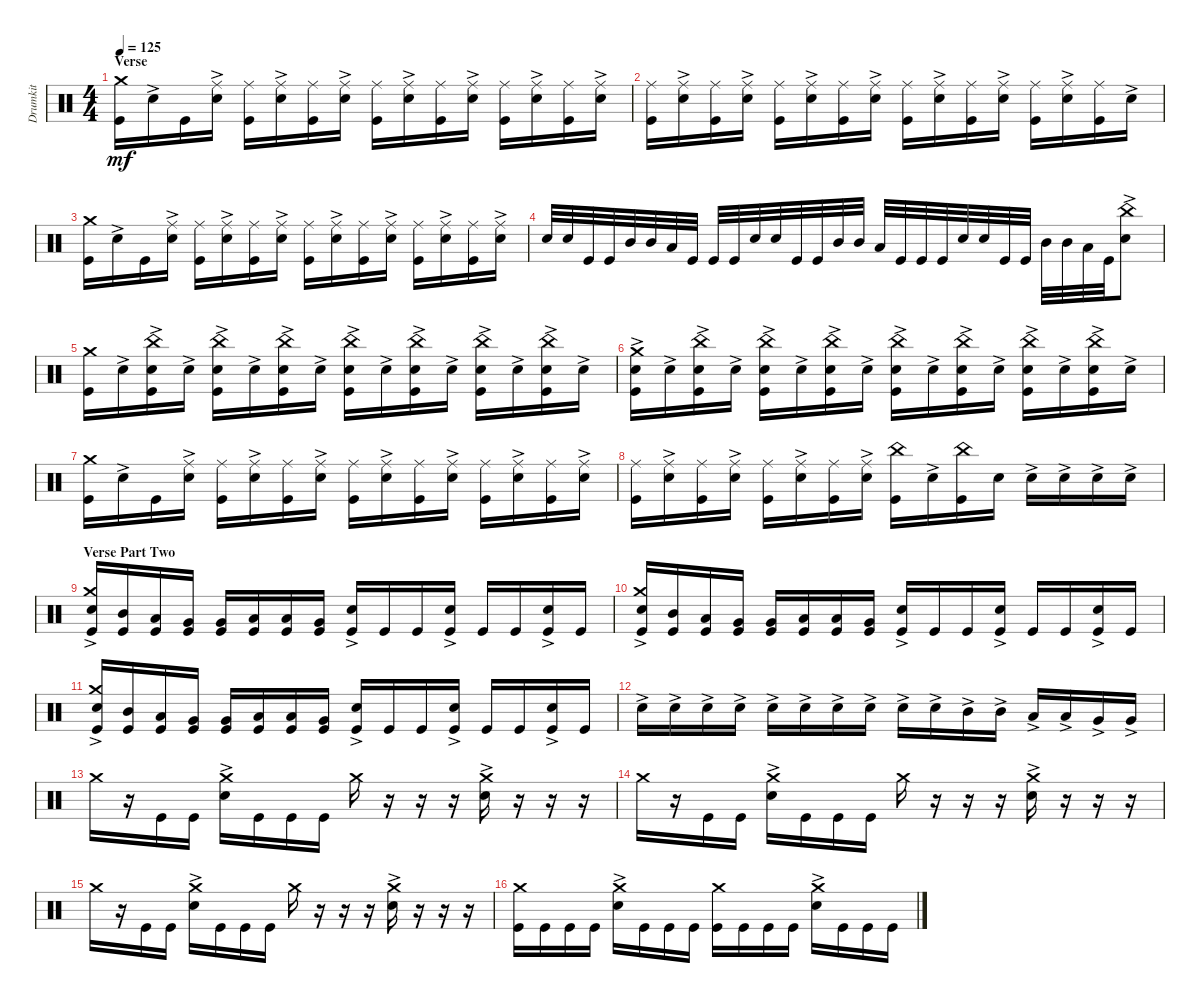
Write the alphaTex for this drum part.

\track ("Drumkit" "Drumkit") {instrument percussion}
\staff {score}
\articulation defaults
\ts (4 4)
\section ("" "Verse")
\tempo 125
\clef neutral
\ks c
("Kick (hit)" "Crash medium (hit)").16{dy mf} "Snare (hit) 2"{ac}.16 "Kick (hit)".16 ("Snare (hit) 2"{ac} "Ride (middle)").16 ("Kick (hit)" "Ride (middle)").16 ("Snare (hit) 2"{ac} "Ride (middle)").16 ("Kick (hit)" "Ride (middle)").16 ("Snare (hit) 2"{ac} "Ride (middle)").16 ("Kick (hit)" "Ride (middle)").16 ("Snare (hit) 2"{ac} "Ride (middle)").16 ("Kick (hit)" "Ride (middle)").16 ("Snare (hit) 2"{ac} "Ride (middle)").16 ("Kick (hit)" "Ride (middle)").16 ("Snare (hit) 2"{ac} "Ride (middle)").16 ("Kick (hit)" "Ride (middle)").16 ("Snare (hit) 2"{ac} "Ride (middle)").16 |
("Kick (hit)" "Ride (middle)").16 ("Snare (hit) 2"{ac} "Ride (middle)").16 ("Kick (hit)" "Ride (middle)").16 ("Snare (hit) 2"{ac} "Ride (middle)").16 ("Kick (hit)" "Ride (middle)").16 ("Snare (hit) 2"{ac} "Ride (middle)").16 ("Kick (hit)" "Ride (middle)").16 ("Snare (hit) 2"{ac} "Ride (middle)").16 ("Kick (hit)" "Ride (middle)").16 ("Snare (hit) 2"{ac} "Ride (middle)").16 ("Kick (hit)" "Ride (middle)").16 ("Snare (hit) 2"{ac} "Ride (middle)").16 ("Kick (hit)" "Ride (middle)").16 ("Snare (hit) 2"{ac} "Ride (middle)").16 ("Kick (hit)" "Ride (middle)").16 "Snare (hit) 2"{ac}.16 |
("Kick (hit)" "Crash medium (hit)").16 "Snare (hit) 2"{ac}.16 "Kick (hit)".16 ("Snare (hit) 2"{ac} "Ride (middle)").16 ("Kick (hit)" "Ride (middle)").16 ("Snare (hit) 2"{ac} "Ride (middle)").16 ("Kick (hit)" "Ride (middle)").16 ("Snare (hit) 2"{ac} "Ride (middle)").16 ("Kick (hit)" "Ride (middle)").16 ("Snare (hit) 2"{ac} "Ride (middle)").16 ("Kick (hit)" "Ride (middle)").16 ("Snare (hit) 2"{ac} "Ride (middle)").16 ("Kick (hit)" "Ride (middle)").16 ("Snare (hit) 2"{ac} "Ride (middle)").16 ("Kick (hit)" "Ride (middle)").16 ("Snare (hit) 2"{ac} "Ride (middle)").16 |
"Snare (hit) 2".32 "Snare (hit) 2".32 "Kick (hit)".32 "Kick (hit)".32 "Mid Tom (hit)".32 "Mid Tom (hit)".32 "Low Tom (hit)".32 "Kick (hit)".32 "Kick (hit)".32 "Kick (hit)".32 "Snare (hit) 2".32 "Snare (hit) 2".32 "Kick (hit)".32 "Kick (hit)".32 "Mid Tom (hit)".32 "Mid Tom (hit)".32 "Low Tom (hit)".32 "Kick (hit)".32 "Kick (hit)".32 "Kick (hit)".32 "Snare (hit) 2".32 "Snare (hit) 2".32 "Kick (hit)".32 "Kick (hit)".32 "Mid Tom (hit)".32 "Mid Tom (hit)".32 "Low Tom (hit)".32 "Kick (hit)".32 ("Snare (hit) 2"{ac} "China (hit)").8 |
("Kick (hit)" "Crash medium (hit)").16 "Snare (hit) 2"{ac}.16 ("Kick (hit)" "China (hit)" "Snare (hit) 2"{ac}).16 "Snare (hit) 2"{ac}.16 ("Kick (hit)" "China (hit)" "Snare (hit) 2"{ac}).16 "Snare (hit) 2"{ac}.16 ("Kick (hit)" "China (hit)" "Snare (hit) 2"{ac}).16 "Snare (hit) 2"{ac}.16 ("Kick (hit)" "China (hit)" "Snare (hit) 2"{ac}).16 "Snare (hit) 2"{ac}.16 ("Kick (hit)" "China (hit)" "Snare (hit) 2"{ac}).16 "Snare (hit) 2"{ac}.16 ("Kick (hit)" "China (hit)" "Snare (hit) 2"{ac}).16 "Snare (hit) 2"{ac}.16 ("Kick (hit)" "China (hit)" "Snare (hit) 2"{ac}).16 "Snare (hit) 2"{ac}.16 |
("Kick (hit)" "Crash medium (hit)" "Snare (hit) 2"{ac}).16 "Snare (hit) 2"{ac}.16 ("Kick (hit)" "China (hit)" "Snare (hit) 2"{ac}).16 "Snare (hit) 2"{ac}.16 ("Kick (hit)" "China (hit)" "Snare (hit) 2"{ac}).16 "Snare (hit) 2"{ac}.16 ("Kick (hit)" "China (hit)" "Snare (hit) 2"{ac}).16 "Snare (hit) 2"{ac}.16 ("Kick (hit)" "China (hit)" "Snare (hit) 2"{ac}).16 "Snare (hit) 2"{ac}.16 ("Kick (hit)" "China (hit)" "Snare (hit) 2"{ac}).16 "Snare (hit) 2"{ac}.16 ("Kick (hit)" "China (hit)" "Snare (hit) 2"{ac}).16 "Snare (hit) 2"{ac}.16 ("Kick (hit)" "China (hit)" "Snare (hit) 2"{ac}).16 "Snare (hit) 2"{ac}.16 |
("Kick (hit)" "Crash medium (hit)").16 "Snare (hit) 2"{ac}.16 "Kick (hit)".16 ("Snare (hit) 2"{ac} "Ride (middle)").16 ("Kick (hit)" "Ride (middle)").16 ("Snare (hit) 2"{ac} "Ride (middle)").16 ("Kick (hit)" "Ride (middle)").16 ("Snare (hit) 2"{ac} "Ride (middle)").16 ("Kick (hit)" "Ride (middle)").16 ("Snare (hit) 2"{ac} "Ride (middle)").16 ("Kick (hit)" "Ride (middle)").16 ("Snare (hit) 2"{ac} "Ride (middle)").16 ("Kick (hit)" "Ride (middle)").16 ("Snare (hit) 2"{ac} "Ride (middle)").16 ("Kick (hit)" "Ride (middle)").16 ("Snare (hit) 2"{ac} "Ride (middle)").16 |
("Kick (hit)" "Ride (middle)").16 ("Snare (hit) 2"{ac} "Ride (middle)").16 ("Kick (hit)" "Ride (middle)").16 ("Snare (hit) 2"{ac} "Ride (middle)").16 ("Kick (hit)" "Ride (middle)").16 ("Snare (hit) 2"{ac} "Ride (middle)").16 ("Kick (hit)" "Ride (middle)").16 ("Snare (hit) 2"{ac} "Ride (middle)").16 ("Kick (hit)" "China (hit)").16 "Snare (hit) 2"{ac}.16 ("Kick (hit)" "China (hit)").16 "Snare (hit) 2".16 "Snare (hit) 2"{ac}.16 "Snare (hit) 2"{ac}.16 "Snare (hit) 2"{ac}.16 "Snare (hit) 2"{ac}.16 |
\section ("" "Verse Part Two")
("Kick (hit)" "Snare (hit) 2"{ac} "Crash medium (hit)").16 ("Kick (hit)" "Mid Tom (hit)").16 ("Kick (hit)" "Low Tom (hit)").16 ("Kick (hit)" "Very Low Tom (hit)").16 ("Kick (hit)" "Very Low Tom (hit)").16 ("Kick (hit)" "Low Floor Tom (hit)").16 ("Kick (hit)" "Low Tom (hit)").16 ("Kick (hit)" "Very Low Tom (hit)").16 ("Kick (hit)" "Snare (hit) 2"{ac}).16 "Kick (hit)".16 "Kick (hit)".16 ("Kick (hit)" "Snare (hit) 2"{ac}).16 "Kick (hit)".16 "Kick (hit)".16 ("Kick (hit)" "Snare (hit) 2"{ac}).16 "Kick (hit)".16 |
("Kick (hit)" "Snare (hit) 2"{ac} "Crash medium (hit)").16 ("Kick (hit)" "Mid Tom (hit)").16 ("Kick (hit)" "Low Tom (hit)").16 ("Kick (hit)" "Very Low Tom (hit)").16 ("Kick (hit)" "Very Low Tom (hit)").16 ("Kick (hit)" "Low Floor Tom (hit)").16 ("Kick (hit)" "Low Tom (hit)").16 ("Kick (hit)" "Very Low Tom (hit)").16 ("Kick (hit)" "Snare (hit) 2"{ac}).16 "Kick (hit)".16 "Kick (hit)".16 ("Kick (hit)" "Snare (hit) 2"{ac}).16 "Kick (hit)".16 "Kick (hit)".16 ("Kick (hit)" "Snare (hit) 2"{ac}).16 "Kick (hit)".16 |
("Kick (hit)" "Snare (hit) 2"{ac} "Crash medium (hit)").16 ("Kick (hit)" "Mid Tom (hit)").16 ("Kick (hit)" "Low Tom (hit)").16 ("Kick (hit)" "Very Low Tom (hit)").16 ("Kick (hit)" "Very Low Tom (hit)").16 ("Kick (hit)" "Low Floor Tom (hit)").16 ("Kick (hit)" "Low Tom (hit)").16 ("Kick (hit)" "Very Low Tom (hit)").16 ("Kick (hit)" "Snare (hit) 2"{ac}).16 "Kick (hit)".16 "Kick (hit)".16 ("Kick (hit)" "Snare (hit) 2"{ac}).16 "Kick (hit)".16 "Kick (hit)".16 ("Kick (hit)" "Snare (hit) 2"{ac}).16 "Kick (hit)".16 |
"Snare (hit) 2"{ac}.16 "Snare (hit) 2"{ac}.16 "Snare (hit) 2"{ac}.16 "Snare (hit) 2"{ac}.16 "Snare (hit) 2"{ac}.16 "Snare (hit) 2"{ac}.16 "Snare (hit) 2"{ac}.16 "Snare (hit) 2"{ac}.16 "Snare (hit) 2"{ac}.16 "Snare (hit) 2"{ac}.16 "Mid Tom (hit)"{ac}.16 "Mid Tom (hit)"{ac}.16 "Low Tom (hit)"{ac}.16 "Low Tom (hit)"{ac}.16 "Very Low Tom (hit)"{ac}.16 "Very Low Tom (hit)"{ac}.16 |
"Crash medium (hit)".16 r.16 "Kick (hit)".16 "Kick (hit)".16 ("Crash medium (hit)" "Snare (hit) 2"{ac}).16 "Kick (hit)".16 "Kick (hit)".16 "Kick (hit)".16 "Crash medium (hit)".16 r.16 r.16 r.16 ("Crash medium (hit)" "Snare (hit) 2"{ac}).16 r.16 r.16 r.16 |
"Crash medium (hit)".16 r.16 "Kick (hit)".16 "Kick (hit)".16 ("Crash medium (hit)" "Snare (hit) 2"{ac}).16 "Kick (hit)".16 "Kick (hit)".16 "Kick (hit)".16 "Crash medium (hit)".16 r.16 r.16 r.16 ("Crash medium (hit)" "Snare (hit) 2"{ac}).16 r.16 r.16 r.16 |
"Crash medium (hit)".16 r.16 "Kick (hit)".16 "Kick (hit)".16 ("Crash medium (hit)" "Snare (hit) 2"{ac}).16 "Kick (hit)".16 "Kick (hit)".16 "Kick (hit)".16 "Crash medium (hit)".16 r.16 r.16 r.16 ("Crash medium (hit)" "Snare (hit) 2"{ac}).16 r.16 r.16 r.16 |
("Crash medium (hit)" "Kick (hit)").16 "Kick (hit)".16 "Kick (hit)".16 "Kick (hit)".16 ("Crash medium (hit)" "Snare (hit) 2"{ac}).16 "Kick (hit)".16 "Kick (hit)".16 "Kick (hit)".16 ("Crash medium (hit)" "Kick (hit)").16 "Kick (hit)".16 "Kick (hit)".16 "Kick (hit)".16 ("Crash medium (hit)" "Snare (hit) 2"{ac}).16 "Kick (hit)".16 "Kick (hit)".16 "Kick (hit)".16
